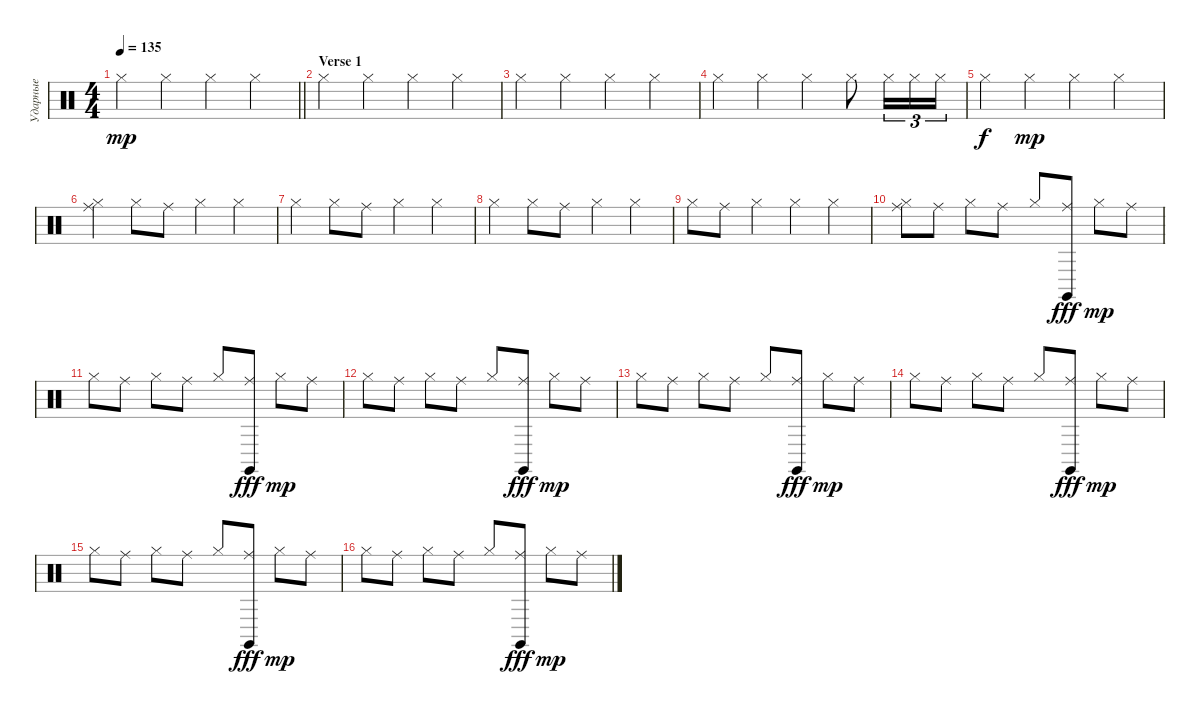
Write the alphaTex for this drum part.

\track ("Ударные" "Ударные") {instrument percussion}
\staff {score}
\articulation defaults
\ts (4 4)
\tempo 135
\clef neutral
\barLineRight lightlight
\ks c "Hi-Hat (closed)".4{dy mp} "Hi-Hat (closed)".4 "Hi-Hat (closed)".4 "Hi-Hat (closed)".4
|
\section ("" "Verse 1")
"Hi-Hat (closed)".4 "Hi-Hat (closed)".4 "Hi-Hat (closed)".4 "Hi-Hat (closed)".4 |
"Hi-Hat (closed)".4 "Hi-Hat (closed)".4 "Hi-Hat (closed)".4 "Hi-Hat (closed)".4 |
"Hi-Hat (closed)".4 "Hi-Hat (closed)".4 "Hi-Hat (closed)".4 "Hi-Hat (closed)".8 "Hi-Hat (closed)".16{tu (3 2)} "Hi-Hat (closed)".16{tu (3 2)} "Hi-Hat (closed)".16{tu (3 2)} |
"Hi-Hat (closed)".4{dy f} "Hi-Hat (closed)".4{dy mp} "Hi-Hat (closed)".4 "Hi-Hat (closed)".4 |
("Hi-Hat (closed)" "Ride (middle)").4 "Hi-Hat (closed)".8 "Ride (middle)".8 "Hi-Hat (closed)".4 "Hi-Hat (closed)".4 |
"Hi-Hat (closed)".4 "Hi-Hat (closed)".8 "Ride (middle)".8 "Hi-Hat (closed)".4 "Hi-Hat (closed)".4 |
"Hi-Hat (closed)".4 "Hi-Hat (closed)".8 "Ride (middle)".8 "Hi-Hat (closed)".4 "Hi-Hat (closed)".4 |
"Hi-Hat (closed)".8 "Ride (middle)".8 "Hi-Hat (closed)".4 "Hi-Hat (closed)".4 "Hi-Hat (closed)".4 |
("Hi-Hat (closed)" "Ride (middle)").8 "Ride (middle)".8 "Hi-Hat (closed)".8 "Ride (middle)".8 "Hi-Hat (closed)".8 ("Ride (middle)" "Claves (hit)").8{dy fff} "Hi-Hat (closed)".8{dy mp} "Ride (middle)".8 |
"Hi-Hat (closed)".8 "Ride (middle)".8 "Hi-Hat (closed)".8 "Ride (middle)".8 "Hi-Hat (closed)".8 ("Ride (middle)" "Claves (hit)").8{dy fff} "Hi-Hat (closed)".8{dy mp} "Ride (middle)".8 |
"Hi-Hat (closed)".8 "Ride (middle)".8 "Hi-Hat (closed)".8 "Ride (middle)".8 "Hi-Hat (closed)".8 ("Ride (middle)" "Claves (hit)").8{dy fff} "Hi-Hat (closed)".8{dy mp} "Ride (middle)".8 |
"Hi-Hat (closed)".8 "Ride (middle)".8 "Hi-Hat (closed)".8 "Ride (middle)".8 "Hi-Hat (closed)".8 ("Ride (middle)" "Claves (hit)").8{dy fff} "Hi-Hat (closed)".8{dy mp} "Ride (middle)".8 |
"Hi-Hat (closed)".8 "Ride (middle)".8 "Hi-Hat (closed)".8 "Ride (middle)".8 "Hi-Hat (closed)".8 ("Ride (middle)" "Claves (hit)").8{dy fff} "Hi-Hat (closed)".8{dy mp} "Ride (middle)".8 |
"Hi-Hat (closed)".8 "Ride (middle)".8 "Hi-Hat (closed)".8 "Ride (middle)".8 "Hi-Hat (closed)".8 ("Ride (middle)" "Claves (hit)").8{dy fff} "Hi-Hat (closed)".8{dy mp} "Ride (middle)".8 |
"Hi-Hat (closed)".8 "Ride (middle)".8 "Hi-Hat (closed)".8 "Ride (middle)".8 "Hi-Hat (closed)".8 ("Ride (middle)" "Claves (hit)").8{dy fff} "Hi-Hat (closed)".8{dy mp} "Ride (middle)".8
